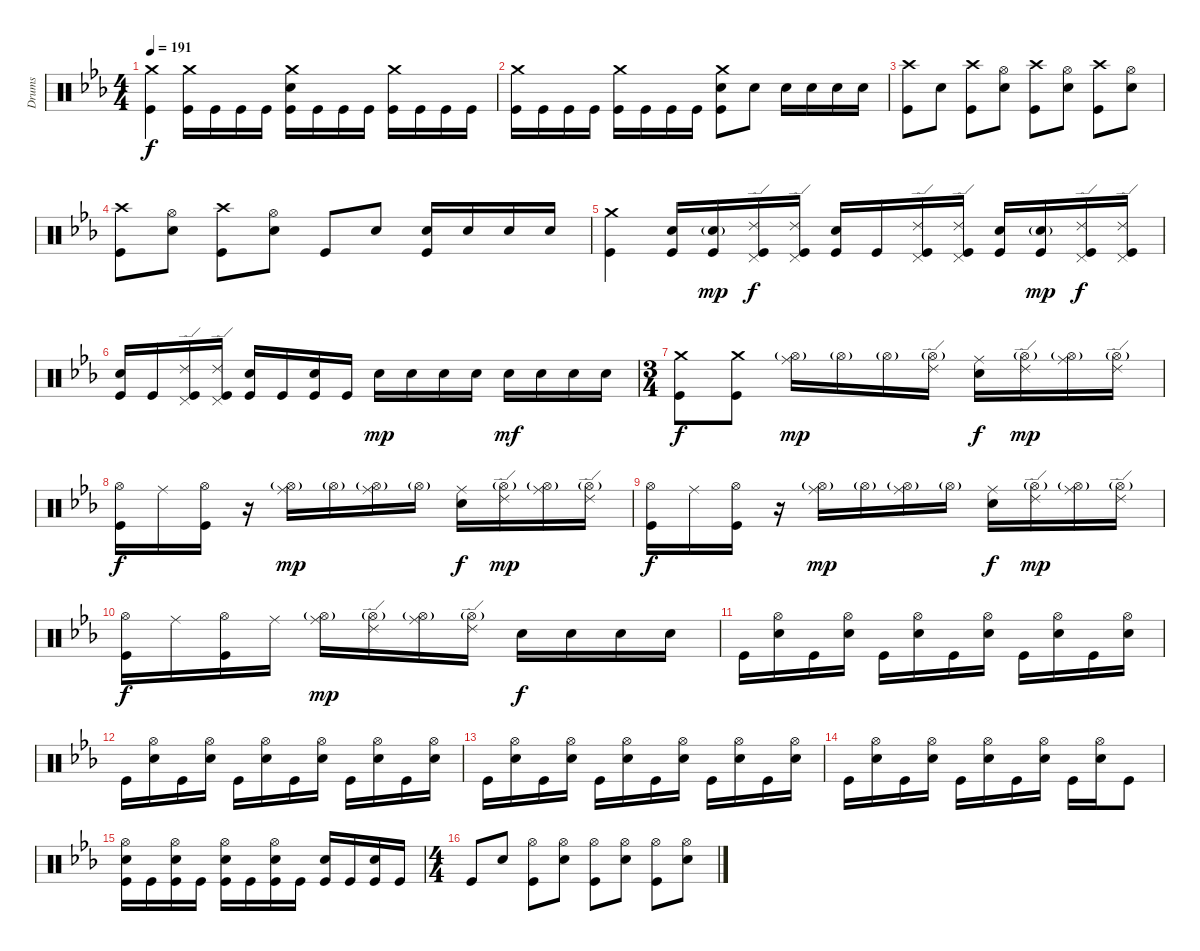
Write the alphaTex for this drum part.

\track ("Drums" "Drums") {instrument percussion}
\staff {score}
\articulation defaults
\ts (4 4)
\tempo 191
\clef neutral
\ks cminor
("Crash medium (hit)" "Kick (hit)").4{dy f} ("Crash medium (hit)" "Kick (hit)").16 "Kick (hit)".16 "Kick (hit)".16 "Kick (hit)".16 ("Crash medium (hit)" "Electric Snare (hit)" "Kick (hit)").16 "Kick (hit)".16 "Kick (hit)".16 "Kick (hit)".16 ("Crash medium (hit)" "Kick (hit)").16 "Kick (hit)".16 "Kick (hit)".16 "Kick (hit)".16 |
("Crash medium (hit)" "Kick (hit)").16 "Kick (hit)".16 "Kick (hit)".16 "Kick (hit)".16 ("Crash medium (hit)" "Kick (hit)").16 "Kick (hit)".16 "Kick (hit)".16 "Kick (hit)".16 ("Crash medium (hit)" "Electric Snare (hit)" "Kick (hit)").8 "Electric Snare (hit)".8 "Electric Snare (hit)".16 "Electric Snare (hit)".16 "Electric Snare (hit)".16 "Electric Snare (hit)".16 |
("Crash high (hit)" "Kick (hit)").8 "Electric Snare (hit)".8 ("Crash high (hit)" "Kick (hit)").8 ("Hi-Hat (open)" "Electric Snare (hit)").8 ("Crash high (hit)" "Kick (hit)").8 ("Hi-Hat (open)" "Electric Snare (hit)").8 ("Crash high (hit)" "Kick (hit)").8 ("Hi-Hat (open)" "Electric Snare (hit)").8 |
("Crash high (hit)" "Kick (hit)").8 ("Hi-Hat (open)" "Electric Snare (hit)").8 ("Crash high (hit)" "Kick (hit)").8 ("Hi-Hat (open)" "Electric Snare (hit)").8 "Kick (hit)".8 "Electric Snare (hit)".8 ("Electric Snare (hit)" "Kick (hit)").16 "Electric Snare (hit)".16 "Electric Snare (hit)".16 "Electric Snare (hit)".16 |
("Crash medium (hit)" "Kick (hit)").4 ("Electric Snare (hit)" "Kick (hit)").16 ("Electric Snare (hit)"{g} "Kick (hit)").16{dy mp} ("Ride (edge) 2" "Pedal Hi-Hat (hit)" "Kick (hit)").16{dy f} ("Ride (edge) 2" "Pedal Hi-Hat (hit)" "Kick (hit)").16 ("Electric Snare (hit)" "Kick (hit)").16 "Kick (hit)".16 ("Ride (edge) 2" "Pedal Hi-Hat (hit)" "Kick (hit)").16 ("Ride (edge) 2" "Pedal Hi-Hat (hit)" "Kick (hit)").16 ("Electric Snare (hit)" "Kick (hit)").16 ("Electric Snare (hit)"{g} "Kick (hit)").16{dy mp} ("Ride (edge) 2" "Pedal Hi-Hat (hit)" "Kick (hit)").16{dy f} ("Ride (edge) 2" "Pedal Hi-Hat (hit)" "Kick (hit)").16 |
("Electric Snare (hit)" "Kick (hit)").16 "Kick (hit)".16 ("Ride (edge) 2" "Pedal Hi-Hat (hit)" "Kick (hit)").16 ("Ride (edge) 2" "Pedal Hi-Hat (hit)" "Kick (hit)").16 ("Electric Snare (hit)" "Kick (hit)").16 "Kick (hit)".16 ("Electric Snare (hit)" "Kick (hit)").16 "Kick (hit)".16 "Electric Snare (hit)".16{dy mp} "Electric Snare (hit)".16 "Electric Snare (hit)".16 "Electric Snare (hit)".16 "Electric Snare (hit)".16{dy mf} "Electric Snare (hit)".16 "Electric Snare (hit)".16 "Electric Snare (hit)".16 |
\ts (3 4)
("Crash medium (hit)" "Kick (hit)").8{dy f} ("Crash medium (hit)" "Kick (hit)").8 ("Ride (middle)" "Hi-Hat (open)"{g}).16{dy mp} "Hi-Hat (open)"{g}.16 "Hi-Hat (open)"{g}.16 ("Ride (edge) 2" "Hi-Hat (open)"{g}).16 ("Ride (middle)" "Electric Snare (hit)").16{dy f} ("Ride (edge) 2" "Hi-Hat (open)"{g}).16{dy mp} ("Ride (middle)" "Hi-Hat (open)"{g}).16 ("Ride (edge) 2" "Hi-Hat (open)"{g}).16 |
("Hi-Hat (open)" "Kick (hit)").16{dy f} "Ride (middle)".16 ("Hi-Hat (open)" "Kick (hit)").16 r.16 ("Ride (middle)" "Hi-Hat (open)"{g}).16{dy mp} "Hi-Hat (open)"{g}.16 ("Ride (middle)" "Hi-Hat (open)"{g}).16 "Hi-Hat (open)"{g}.16 ("Ride (middle)" "Electric Snare (hit)").16{dy f} ("Ride (edge) 2" "Hi-Hat (open)"{g}).16{dy mp} ("Ride (middle)" "Hi-Hat (open)"{g}).16 ("Ride (edge) 2" "Hi-Hat (open)"{g}).16 |
("Hi-Hat (open)" "Kick (hit)").16{dy f} "Ride (middle)".16 ("Hi-Hat (open)" "Kick (hit)").16 r.16 ("Ride (middle)" "Hi-Hat (open)"{g}).16{dy mp} "Hi-Hat (open)"{g}.16 ("Ride (middle)" "Hi-Hat (open)"{g}).16 "Hi-Hat (open)"{g}.16 ("Ride (middle)" "Electric Snare (hit)").16{dy f} ("Ride (edge) 2" "Hi-Hat (open)"{g}).16{dy mp} ("Ride (middle)" "Hi-Hat (open)"{g}).16 ("Ride (edge) 2" "Hi-Hat (open)"{g}).16 |
("Hi-Hat (open)" "Kick (hit)").16{dy f} "Ride (middle)".16 ("Hi-Hat (open)" "Kick (hit)").16 "Ride (middle)".16 ("Ride (middle)" "Hi-Hat (open)"{g}).16{dy mp} ("Ride (edge) 2" "Hi-Hat (open)"{g}).16 ("Ride (middle)" "Hi-Hat (open)"{g}).16 ("Ride (edge) 2" "Hi-Hat (open)"{g}).16 "Electric Snare (hit)".16{dy f} "Electric Snare (hit)".16 "Electric Snare (hit)".16 "Electric Snare (hit)".16 |
"Kick (hit)".16 ("Hi-Hat (open)" "Electric Snare (hit)").16 "Kick (hit)".16 ("Hi-Hat (open)" "Electric Snare (hit)").16 "Kick (hit)".16 ("Hi-Hat (open)" "Electric Snare (hit)").16 "Kick (hit)".16 ("Hi-Hat (open)" "Electric Snare (hit)").16 "Kick (hit)".16 ("Hi-Hat (open)" "Electric Snare (hit)").16 "Kick (hit)".16 ("Hi-Hat (open)" "Electric Snare (hit)").16 |
"Kick (hit)".16 ("Hi-Hat (open)" "Electric Snare (hit)").16 "Kick (hit)".16 ("Hi-Hat (open)" "Electric Snare (hit)").16 "Kick (hit)".16 ("Hi-Hat (open)" "Electric Snare (hit)").16 "Kick (hit)".16 ("Hi-Hat (open)" "Electric Snare (hit)").16 "Kick (hit)".16 ("Hi-Hat (open)" "Electric Snare (hit)").16 "Kick (hit)".16 ("Hi-Hat (open)" "Electric Snare (hit)").16 |
"Kick (hit)".16 ("Hi-Hat (open)" "Electric Snare (hit)").16 "Kick (hit)".16 ("Hi-Hat (open)" "Electric Snare (hit)").16 "Kick (hit)".16 ("Hi-Hat (open)" "Electric Snare (hit)").16 "Kick (hit)".16 ("Hi-Hat (open)" "Electric Snare (hit)").16 "Kick (hit)".16 ("Hi-Hat (open)" "Electric Snare (hit)").16 "Kick (hit)".16 ("Hi-Hat (open)" "Electric Snare (hit)").16 |
"Kick (hit)".16 ("Hi-Hat (open)" "Electric Snare (hit)").16 "Kick (hit)".16 ("Hi-Hat (open)" "Electric Snare (hit)").16 "Kick (hit)".16 ("Hi-Hat (open)" "Electric Snare (hit)").16 "Kick (hit)".16 ("Hi-Hat (open)" "Electric Snare (hit)").16 "Kick (hit)".16 ("Hi-Hat (open)" "Electric Snare (hit)").16 "Kick (hit)".8 |
("Hi-Hat (open)" "Electric Snare (hit)" "Kick (hit)").16 "Kick (hit)".16 ("Hi-Hat (open)" "Electric Snare (hit)" "Kick (hit)").16 "Kick (hit)".16 ("Hi-Hat (open)" "Electric Snare (hit)" "Kick (hit)").16 "Kick (hit)".16 ("Hi-Hat (open)" "Electric Snare (hit)" "Kick (hit)").16 "Kick (hit)".16 ("Electric Snare (hit)" "Kick (hit)").16 "Kick (hit)".16 ("Electric Snare (hit)" "Kick (hit)").16 "Kick (hit)".16 |
\ts (4 4)
"Kick (hit)".8 "Electric Snare (hit)".8 ("Hi-Hat (open)" "Kick (hit)").8 ("Hi-Hat (open)" "Electric Snare (hit)").8 ("Hi-Hat (open)" "Kick (hit)").8 ("Hi-Hat (open)" "Electric Snare (hit)").8 ("Hi-Hat (open)" "Kick (hit)").8 ("Hi-Hat (open)" "Electric Snare (hit)").8
